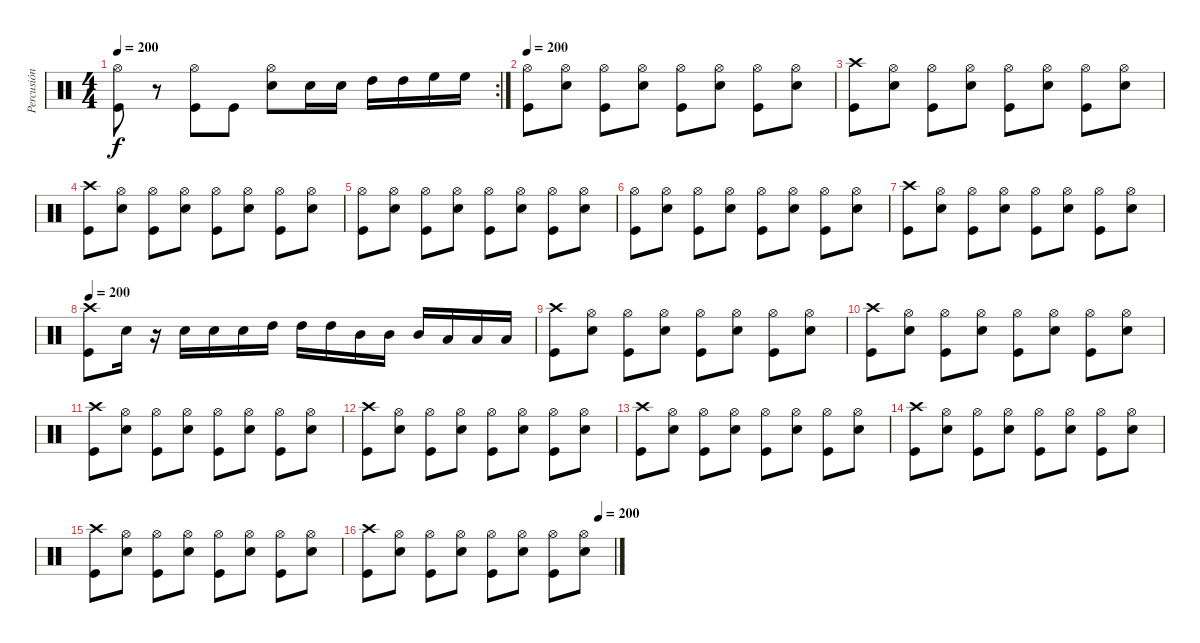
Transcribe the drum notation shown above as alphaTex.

\track ("Percusión" "Percusión") {instrument percussion}
\staff {score}
\articulation defaults
\rc 2
\ts (4 4)
\tempo 200
\clef neutral
\ks c
("Hi-Hat (open)" "Kick (hit)").8{dy f} r.8 ("Hi-Hat (open)" "Kick (hit)").8 "Kick (hit)".8 ("Hi-Hat (open)" "Snare (hit) 2").8 "Snare (hit) 2".16 "Snare (hit) 2".16 "High Tom (hit)".16 "High Tom (hit)".16 "High Floor Tom (hit)".16 "High Floor Tom (hit)".16 |
\tempo 200
("Hi-Hat (open)" "Kick (hit)").8 ("Hi-Hat (open)" "Snare (hit) 2").8 ("Hi-Hat (open)" "Kick (hit)").8 ("Hi-Hat (open)" "Snare (hit) 2").8 ("Hi-Hat (open)" "Kick (hit)").8 ("Hi-Hat (open)" "Snare (hit) 2").8 ("Hi-Hat (open)" "Kick (hit)").8 ("Hi-Hat (open)" "Snare (hit) 2").8 |
("Crash high (hit)" "Kick (hit)").8 ("Hi-Hat (open)" "Snare (hit) 2").8 ("Hi-Hat (open)" "Kick (hit)").8 ("Hi-Hat (open)" "Snare (hit) 2").8 ("Hi-Hat (open)" "Kick (hit)").8 ("Hi-Hat (open)" "Snare (hit) 2").8 ("Hi-Hat (open)" "Kick (hit)").8 ("Hi-Hat (open)" "Snare (hit) 2").8 |
("Crash high (hit)" "Kick (hit)").8 ("Hi-Hat (open)" "Snare (hit) 2").8 ("Hi-Hat (open)" "Kick (hit)").8 ("Hi-Hat (open)" "Snare (hit) 2").8 ("Hi-Hat (open)" "Kick (hit)").8 ("Hi-Hat (open)" "Snare (hit) 2").8 ("Hi-Hat (open)" "Kick (hit)").8 ("Hi-Hat (open)" "Snare (hit) 2").8 |
("Hi-Hat (open)" "Kick (hit)").8 ("Hi-Hat (open)" "Snare (hit) 2").8 ("Hi-Hat (open)" "Kick (hit)").8 ("Hi-Hat (open)" "Snare (hit) 2").8 ("Hi-Hat (open)" "Kick (hit)").8 ("Hi-Hat (open)" "Snare (hit) 2").8 ("Hi-Hat (open)" "Kick (hit)").8 ("Hi-Hat (open)" "Snare (hit) 2").8 |
("Hi-Hat (open)" "Kick (hit)").8 ("Hi-Hat (open)" "Snare (hit) 2").8 ("Hi-Hat (open)" "Kick (hit)").8 ("Hi-Hat (open)" "Snare (hit) 2").8 ("Hi-Hat (open)" "Kick (hit)").8 ("Hi-Hat (open)" "Snare (hit) 2").8 ("Hi-Hat (open)" "Kick (hit)").8 ("Hi-Hat (open)" "Snare (hit) 2").8 |
("Crash high (hit)" "Kick (hit)").8 ("Hi-Hat (open)" "Snare (hit) 2").8 ("Hi-Hat (open)" "Kick (hit)").8 ("Hi-Hat (open)" "Snare (hit) 2").8 ("Hi-Hat (open)" "Kick (hit)").8 ("Hi-Hat (open)" "Snare (hit) 2").8 ("Hi-Hat (open)" "Kick (hit)").8 ("Hi-Hat (open)" "Snare (hit) 2").8 |
\tempo 200
("Crash high (hit)" "Kick (hit)").8 "Snare (hit) 2".16 r.16 "Snare (hit) 2".16 "Snare (hit) 2".16 "Snare (hit) 2".16 "High Tom (hit)".16 "High Tom (hit)".16 "High Tom (hit)".16 "Mid Tom (hit)".16 "Mid Tom (hit)".16 "Mid Tom (hit)".16 "Low Tom (hit)".16 "Low Tom (hit)".16 "Low Tom (hit)".16 |
("Crash high (hit)" "Kick (hit)").8 ("Hi-Hat (open)" "Snare (hit) 2").8 ("Hi-Hat (open)" "Kick (hit)").8 ("Hi-Hat (open)" "Snare (hit) 2").8 ("Hi-Hat (open)" "Kick (hit)").8 ("Hi-Hat (open)" "Snare (hit) 2").8 ("Hi-Hat (open)" "Kick (hit)").8 ("Hi-Hat (open)" "Snare (hit) 2").8 |
("Crash high (hit)" "Kick (hit)").8 ("Hi-Hat (open)" "Snare (hit) 2").8 ("Hi-Hat (open)" "Kick (hit)").8 ("Hi-Hat (open)" "Snare (hit) 2").8 ("Hi-Hat (open)" "Kick (hit)").8 ("Hi-Hat (open)" "Snare (hit) 2").8 ("Hi-Hat (open)" "Kick (hit)").8 ("Hi-Hat (open)" "Snare (hit) 2").8 |
("Crash high (hit)" "Kick (hit)").8 ("Hi-Hat (open)" "Snare (hit) 2").8 ("Hi-Hat (open)" "Kick (hit)").8 ("Hi-Hat (open)" "Snare (hit) 2").8 ("Hi-Hat (open)" "Kick (hit)").8 ("Hi-Hat (open)" "Snare (hit) 2").8 ("Hi-Hat (open)" "Kick (hit)").8 ("Hi-Hat (open)" "Snare (hit) 2").8 |
("Crash high (hit)" "Kick (hit)").8 ("Hi-Hat (open)" "Snare (hit) 2").8 ("Hi-Hat (open)" "Kick (hit)").8 ("Hi-Hat (open)" "Snare (hit) 2").8 ("Hi-Hat (open)" "Kick (hit)").8 ("Hi-Hat (open)" "Snare (hit) 2").8 ("Hi-Hat (open)" "Kick (hit)").8 ("Hi-Hat (open)" "Snare (hit) 2").8 |
("Crash high (hit)" "Kick (hit)").8 ("Hi-Hat (open)" "Snare (hit) 2").8 ("Hi-Hat (open)" "Kick (hit)").8 ("Hi-Hat (open)" "Snare (hit) 2").8 ("Hi-Hat (open)" "Kick (hit)").8 ("Hi-Hat (open)" "Snare (hit) 2").8 ("Hi-Hat (open)" "Kick (hit)").8 ("Hi-Hat (open)" "Snare (hit) 2").8 |
("Crash high (hit)" "Kick (hit)").8 ("Hi-Hat (open)" "Snare (hit) 2").8 ("Hi-Hat (open)" "Kick (hit)").8 ("Hi-Hat (open)" "Snare (hit) 2").8 ("Hi-Hat (open)" "Kick (hit)").8 ("Hi-Hat (open)" "Snare (hit) 2").8 ("Hi-Hat (open)" "Kick (hit)").8 ("Hi-Hat (open)" "Snare (hit) 2").8 |
("Crash high (hit)" "Kick (hit)").8 ("Hi-Hat (open)" "Snare (hit) 2").8 ("Hi-Hat (open)" "Kick (hit)").8 ("Hi-Hat (open)" "Snare (hit) 2").8 ("Hi-Hat (open)" "Kick (hit)").8 ("Hi-Hat (open)" "Snare (hit) 2").8 ("Hi-Hat (open)" "Kick (hit)").8 ("Hi-Hat (open)" "Snare (hit) 2").8 |
\tempo (200 0.9375)
("Crash high (hit)" "Kick (hit)").8 ("Hi-Hat (open)" "Snare (hit) 2").8 ("Hi-Hat (open)" "Kick (hit)").8 ("Hi-Hat (open)" "Snare (hit) 2").8 ("Hi-Hat (open)" "Kick (hit)").8 ("Hi-Hat (open)" "Snare (hit) 2").8 ("Hi-Hat (open)" "Kick (hit)").8 ("Hi-Hat (open)" "Snare (hit) 2").8
